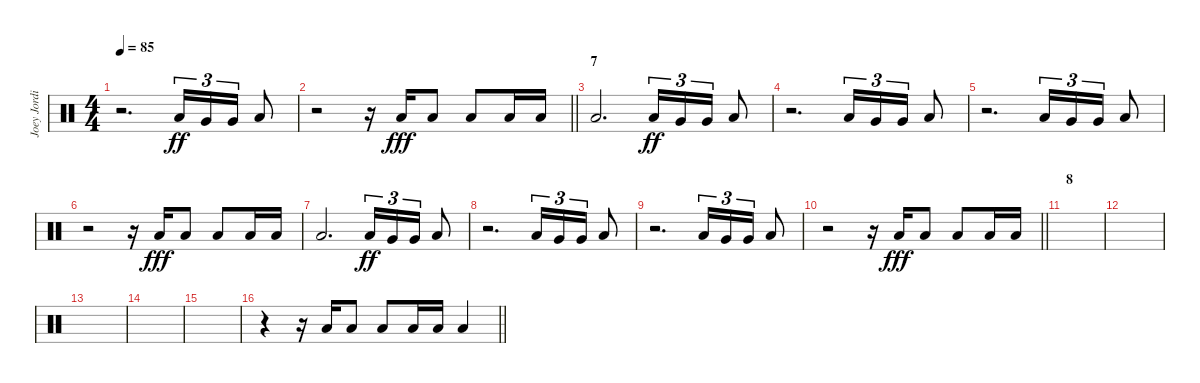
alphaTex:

\track ("Joey Jordison" "Joey Jordi") {instrument percussion}
\staff {score}
\articulation defaults
\ts (4 4)
\tempo 85
\clef neutral
\ks c
r.2{d dy ff} "Low Tom (hit)".16{tu (3 2)} "Very Low Tom (hit)".16{tu (3 2)} "Very Low Tom (hit)".16{tu (3 2)} "Low Floor Tom (hit)".8 |
\barLineRight lightlight
r.2 r.16 "Low Floor Tom (hit)".16{dy fff} "Low Floor Tom (hit)".8 "Low Floor Tom (hit)".8 "Low Floor Tom (hit)".16 "Low Floor Tom (hit)".16 |
\section ("" "7")
"Low Floor Tom (hit)".2{d} "Low Tom (hit)".16{tu (3 2) dy ff} "Very Low Tom (hit)".16{tu (3 2)} "Very Low Tom (hit)".16{tu (3 2)} "Low Floor Tom (hit)".8 |
r.2{d} "Low Tom (hit)".16{tu (3 2)} "Very Low Tom (hit)".16{tu (3 2)} "Very Low Tom (hit)".16{tu (3 2)} "Low Floor Tom (hit)".8 |
r.2{d} "Low Tom (hit)".16{tu (3 2)} "Very Low Tom (hit)".16{tu (3 2)} "Very Low Tom (hit)".16{tu (3 2)} "Low Floor Tom (hit)".8 |
r.2 r.16 "Low Floor Tom (hit)".16{dy fff} "Low Floor Tom (hit)".8 "Low Floor Tom (hit)".8 "Low Floor Tom (hit)".16 "Low Floor Tom (hit)".16 |
"Low Floor Tom (hit)".2{d} "Low Tom (hit)".16{tu (3 2) dy ff} "Very Low Tom (hit)".16{tu (3 2)} "Very Low Tom (hit)".16{tu (3 2)} "Low Floor Tom (hit)".8 |
r.2{d} "Low Tom (hit)".16{tu (3 2)} "Very Low Tom (hit)".16{tu (3 2)} "Very Low Tom (hit)".16{tu (3 2)} "Low Floor Tom (hit)".8 |
r.2{d} "Low Tom (hit)".16{tu (3 2)} "Very Low Tom (hit)".16{tu (3 2)} "Very Low Tom (hit)".16{tu (3 2)} "Low Floor Tom (hit)".8 |
\barLineRight lightlight
r.2 r.16 "Low Floor Tom (hit)".16{dy fff} "Low Floor Tom (hit)".8 "Low Floor Tom (hit)".8 "Low Floor Tom (hit)".16 "Low Floor Tom (hit)".16 |
\section ("" "8")
|
|
|
|
|
\barLineRight lightlight
r.4 r.16 "Low Floor Tom (hit)".16 "Low Floor Tom (hit)".8 "Low Floor Tom (hit)".8 "Low Floor Tom (hit)".16 "Low Floor Tom (hit)".16 "Low Floor Tom (hit)".4
